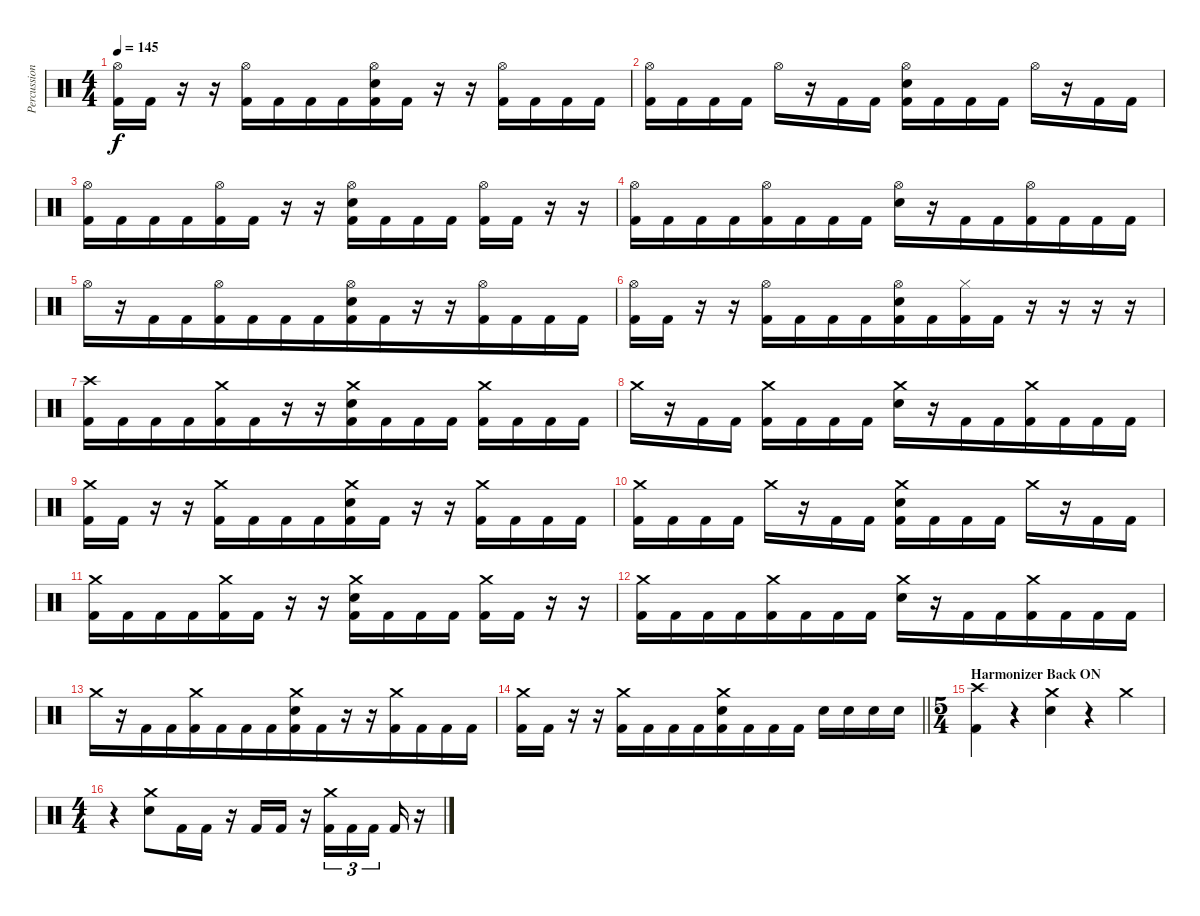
\track ("Percussion" "Percussion") {instrument percussion}
\staff {score}
\articulation defaults
\ts (4 4)
\tempo 145
\clef neutral
\ks c
("Hi-Hat (open)" "Kick (hit) 2").16{dy f} "Kick (hit) 2".16 r.16{beam merge} r.16{beam merge} ("Hi-Hat (open)" "Kick (hit) 2").16 "Kick (hit) 2".16{beam merge} "Kick (hit) 2".16 "Kick (hit) 2".16{beam merge} ("Hi-Hat (open)" "Electric Snare (hit)" "Kick (hit) 2").16 "Kick (hit) 2".16 r.16 r.16{beam merge} ("Hi-Hat (open)" "Kick (hit) 2").16 "Kick (hit) 2".16 "Kick (hit) 2".16{beam merge} "Kick (hit) 2".16 |
("Hi-Hat (open)" "Kick (hit) 2").16 "Kick (hit) 2".16 "Kick (hit) 2".16 "Kick (hit) 2".16 "Hi-Hat (open)".16{beam merge} r.16 "Kick (hit) 2".16 "Kick (hit) 2".16 ("Hi-Hat (open)" "Electric Snare (hit)" "Kick (hit) 2").16{beam merge} "Kick (hit) 2".16 "Kick (hit) 2".16{beam merge} "Kick (hit) 2".16 "Hi-Hat (open)".16 r.16{beam merge} "Kick (hit) 2".16 "Kick (hit) 2".16 |
("Hi-Hat (open)" "Kick (hit) 2").16{beam merge} "Kick (hit) 2".16 "Kick (hit) 2".16{beam merge} "Kick (hit) 2".16{beam merge} ("Hi-Hat (open)" "Kick (hit) 2").16 "Kick (hit) 2".16 r.16 r.16 ("Hi-Hat (open)" "Electric Snare (hit)" "Kick (hit) 2").16 "Kick (hit) 2".16 "Kick (hit) 2".16 "Kick (hit) 2".16 ("Hi-Hat (open)" "Kick (hit) 2").16 "Kick (hit) 2".16 r.16 r.16 |
("Hi-Hat (open)" "Kick (hit) 2").16 "Kick (hit) 2".16 "Kick (hit) 2".16 "Kick (hit) 2".16{beam merge} ("Hi-Hat (open)" "Kick (hit) 2").16 "Kick (hit) 2".16 "Kick (hit) 2".16{beam merge} "Kick (hit) 2".16 ("Hi-Hat (open)" "Electric Snare (hit)").16 r.16{beam merge} "Kick (hit) 2".16{beam merge} "Kick (hit) 2".16{beam merge} ("Hi-Hat (open)" "Kick (hit) 2").16{beam merge} "Kick (hit) 2".16{beam merge} "Kick (hit) 2".16 "Kick (hit) 2".16 |
"Hi-Hat (open)".16 r.16 "Kick (hit) 2".16{beam merge} "Kick (hit) 2".16{beam merge} ("Hi-Hat (open)" "Kick (hit) 2").16 "Kick (hit) 2".16{beam merge} "Kick (hit) 2".16 "Kick (hit) 2".16{beam merge} ("Hi-Hat (open)" "Electric Snare (hit)" "Kick (hit) 2").16{beam merge} "Kick (hit) 2".16{beam merge} r.16 r.16 ("Hi-Hat (open)" "Kick (hit) 2").16{beam merge} "Kick (hit) 2".16 "Kick (hit) 2".16{beam merge} "Kick (hit) 2".16 |
("Hi-Hat (open)" "Kick (hit) 2").16 "Kick (hit) 2".16 r.16{beam merge} r.16 ("Hi-Hat (open)" "Kick (hit) 2").16{beam merge} "Kick (hit) 2".16 "Kick (hit) 2".16{beam merge} "Kick (hit) 2".16{beam merge} ("Hi-Hat (open)" "Electric Snare (hit)" "Kick (hit) 2").16 "Kick (hit) 2".16{beam merge} ("Hi-Hat (closed)" "Kick (hit) 2").16 "Kick (hit) 2".16 r.16 r.16 r.16 r.16 |
("Crash high (hit)" "Kick (hit) 2").16 "Kick (hit) 2".16{beam merge} "Kick (hit) 2".16{beam merge} "Kick (hit) 2".16{beam merge} ("Crash medium (hit)" "Kick (hit) 2").16 "Kick (hit) 2".16{beam merge} r.16 r.16 ("Crash medium (hit)" "Electric Snare (hit)" "Kick (hit) 2").16{beam merge} "Kick (hit) 2".16 "Kick (hit) 2".16{beam merge} "Kick (hit) 2".16 ("Crash medium (hit)" "Kick (hit) 2").16 "Kick (hit) 2".16{beam merge} "Kick (hit) 2".16 "Kick (hit) 2".16 |
"Crash medium (hit)".16{beam merge} r.16 "Kick (hit) 2".16{beam merge} "Kick (hit) 2".16 ("Crash medium (hit)" "Kick (hit) 2").16{beam merge} "Kick (hit) 2".16 "Kick (hit) 2".16 "Kick (hit) 2".16 ("Crash medium (hit)" "Electric Snare (hit)").16 r.16{beam merge} "Kick (hit) 2".16 "Kick (hit) 2".16{beam merge} ("Crash medium (hit)" "Kick (hit) 2").16{beam merge} "Kick (hit) 2".16{beam merge} "Kick (hit) 2".16 "Kick (hit) 2".16 |
("Crash medium (hit)" "Kick (hit) 2").16 "Kick (hit) 2".16 r.16{beam merge} r.16{beam merge} ("Crash medium (hit)" "Kick (hit) 2").16 "Kick (hit) 2".16{beam merge} "Kick (hit) 2".16 "Kick (hit) 2".16{beam merge} ("Crash medium (hit)" "Electric Snare (hit)" "Kick (hit) 2").16 "Kick (hit) 2".16 r.16 r.16{beam merge} ("Crash medium (hit)" "Kick (hit) 2").16 "Kick (hit) 2".16 "Kick (hit) 2".16{beam merge} "Kick (hit) 2".16 |
("Crash medium (hit)" "Kick (hit) 2").16 "Kick (hit) 2".16 "Kick (hit) 2".16 "Kick (hit) 2".16 "Crash medium (hit)".16{beam merge} r.16 "Kick (hit) 2".16 "Kick (hit) 2".16 ("Crash medium (hit)" "Electric Snare (hit)" "Kick (hit) 2").16{beam merge} "Kick (hit) 2".16 "Kick (hit) 2".16{beam merge} "Kick (hit) 2".16 "Crash medium (hit)".16 r.16{beam merge} "Kick (hit) 2".16 "Kick (hit) 2".16 |
("Crash medium (hit)" "Kick (hit) 2").16{beam merge} "Kick (hit) 2".16 "Kick (hit) 2".16{beam merge} "Kick (hit) 2".16{beam merge} ("Crash medium (hit)" "Kick (hit) 2").16 "Kick (hit) 2".16 r.16 r.16 ("Crash medium (hit)" "Electric Snare (hit)" "Kick (hit) 2").16 "Kick (hit) 2".16 "Kick (hit) 2".16 "Kick (hit) 2".16 ("Crash medium (hit)" "Kick (hit) 2").16 "Kick (hit) 2".16 r.16 r.16 |
("Crash medium (hit)" "Kick (hit) 2").16 "Kick (hit) 2".16 "Kick (hit) 2".16 "Kick (hit) 2".16{beam merge} ("Crash medium (hit)" "Kick (hit) 2").16 "Kick (hit) 2".16 "Kick (hit) 2".16{beam merge} "Kick (hit) 2".16 ("Crash medium (hit)" "Electric Snare (hit)").16 r.16{beam merge} "Kick (hit) 2".16{beam merge} "Kick (hit) 2".16{beam merge} ("Crash medium (hit)" "Kick (hit) 2").16{beam merge} "Kick (hit) 2".16{beam merge} "Kick (hit) 2".16 "Kick (hit) 2".16 |
"Crash medium (hit)".16 r.16 "Kick (hit) 2".16{beam merge} "Kick (hit) 2".16{beam merge} ("Crash medium (hit)" "Kick (hit) 2").16 "Kick (hit) 2".16{beam merge} "Kick (hit) 2".16 "Kick (hit) 2".16{beam merge} ("Crash medium (hit)" "Electric Snare (hit)" "Kick (hit) 2").16{beam merge} "Kick (hit) 2".16{beam merge} r.16 r.16 ("Crash medium (hit)" "Kick (hit) 2").16{beam merge} "Kick (hit) 2".16 "Kick (hit) 2".16{beam merge} "Kick (hit) 2".16 |
\barLineRight lightlight
("Crash medium (hit)" "Kick (hit) 2").16 "Kick (hit) 2".16 r.16{beam merge} r.16 ("Crash medium (hit)" "Kick (hit) 2").16{beam merge} "Kick (hit) 2".16 "Kick (hit) 2".16{beam merge} "Kick (hit) 2".16{beam merge} ("Crash medium (hit)" "Electric Snare (hit)" "Kick (hit) 2").16 "Kick (hit) 2".16{beam merge} "Kick (hit) 2".16 "Kick (hit) 2".16 "Electric Snare (hit)".16 "Electric Snare (hit)".16 "Electric Snare (hit)".16 "Electric Snare (hit)".16 |
\ts (5 4)
\section ("" "Harmonizer Back ON")
("Crash high (hit)" "Kick (hit) 2").4{beam merge} r.4 ("Crash medium (hit)" "Electric Snare (hit)").4 r.4 "Crash medium (hit)".4 |
\ts (4 4)
r.4 ("Crash medium (hit)" "Electric Snare (hit)").8{beam merge} "Kick (hit) 2".16{beam merge} "Kick (hit) 2".16 r.16{beam merge} "Kick (hit) 2".16 "Kick (hit) 2".16 r.16 ("Crash medium (hit)" "Kick (hit) 2").16{tu (3 2)} "Kick (hit) 2".16{tu (3 2)} "Kick (hit) 2".16{tu (3 2) beam splitsecondary} "Kick (hit) 2".16 r.16
